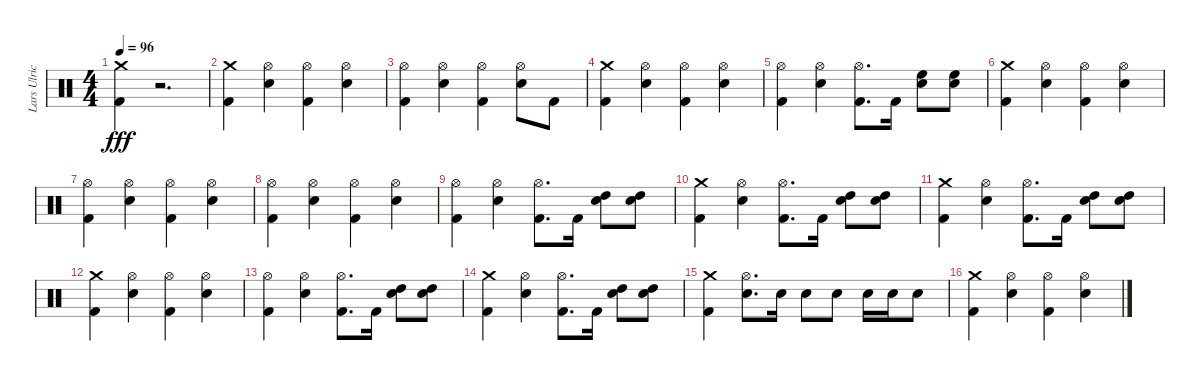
\track ("Lars Ulrich" "Lars Ulric") {instrument percussion}
\staff {score}
\articulation defaults
\ts (4 4)
\tempo 96
\clef neutral
\ks c
("Kick (hit) 2" "Crash medium (hit)").4{dy fff} r.2{d} |
("Kick (hit) 2" "Crash medium (hit)").4 ("Hi-Hat (open)" "Snare (hit) 2").4 ("Hi-Hat (open)" "Kick (hit) 2").4 ("Hi-Hat (open)" "Snare (hit) 2").4 |
("Hi-Hat (open)" "Kick (hit) 2").4 ("Hi-Hat (open)" "Snare (hit) 2").4 ("Hi-Hat (open)" "Kick (hit) 2").4 ("Hi-Hat (open)" "Snare (hit) 2").8 "Kick (hit) 2".8 |
("Kick (hit) 2" "Crash medium (hit)").4 ("Hi-Hat (open)" "Snare (hit) 2").4 ("Hi-Hat (open)" "Kick (hit) 2").4 ("Hi-Hat (open)" "Snare (hit) 2").4 |
("Hi-Hat (open)" "Kick (hit) 2").4 ("Hi-Hat (open)" "Snare (hit) 2").4 ("Hi-Hat (open)" "Kick (hit) 2").8{d} "Kick (hit) 2".16 ("High Floor Tom (hit)" "Snare (hit) 2").8 ("High Floor Tom (hit)" "Snare (hit) 2").8 |
("Kick (hit) 2" "Crash medium (hit)").4 ("Hi-Hat (open)" "Snare (hit) 2").4 ("Hi-Hat (open)" "Kick (hit) 2").4 ("Hi-Hat (open)" "Snare (hit) 2").4 |
("Hi-Hat (open)" "Kick (hit) 2").4 ("Hi-Hat (open)" "Snare (hit) 2").4 ("Hi-Hat (open)" "Kick (hit) 2").4 ("Hi-Hat (open)" "Snare (hit) 2").4 |
("Hi-Hat (open)" "Kick (hit) 2").4 ("Hi-Hat (open)" "Snare (hit) 2").4 ("Hi-Hat (open)" "Kick (hit) 2").4 ("Hi-Hat (open)" "Snare (hit) 2").4 |
("Hi-Hat (open)" "Kick (hit) 2").4 ("Hi-Hat (open)" "Snare (hit) 2").4 ("Hi-Hat (open)" "Kick (hit) 2").8{d} "Kick (hit) 2".16 ("High Tom (hit)" "Snare (hit) 2").8 ("High Tom (hit)" "Snare (hit) 2").8 |
("Kick (hit) 2" "Crash medium (hit)").4 ("Hi-Hat (open)" "Snare (hit) 2").4 ("Hi-Hat (open)" "Kick (hit) 2").8{d} "Kick (hit) 2".16 ("High Tom (hit)" "Snare (hit) 2").8 ("High Tom (hit)" "Snare (hit) 2").8 |
("Kick (hit) 2" "Crash medium (hit)").4 ("Hi-Hat (open)" "Snare (hit) 2").4 ("Hi-Hat (open)" "Kick (hit) 2").8{d} "Kick (hit) 2".16 ("High Tom (hit)" "Snare (hit) 2").8 ("High Tom (hit)" "Snare (hit) 2").8 |
("Kick (hit) 2" "Crash medium (hit)").4 ("Hi-Hat (open)" "Snare (hit) 2").4 ("Hi-Hat (open)" "Kick (hit) 2").4 ("Hi-Hat (open)" "Snare (hit) 2").4 |
("Kick (hit) 2" "Hi-Hat (open)").4 ("Hi-Hat (open)" "Snare (hit) 2").4 ("Hi-Hat (open)" "Kick (hit) 2").8{d} "Kick (hit) 2".16 ("High Tom (hit)" "Snare (hit) 2").8 ("High Tom (hit)" "Snare (hit) 2").8 |
("Kick (hit) 2" "Crash medium (hit)").4 ("Hi-Hat (open)" "Snare (hit) 2").4 ("Hi-Hat (open)" "Kick (hit) 2").8{d} "Kick (hit) 2".16 ("High Tom (hit)" "Snare (hit) 2").8 ("High Tom (hit)" "Snare (hit) 2").8 |
("Kick (hit) 2" "Crash medium (hit)").4 ("Hi-Hat (open)" "Snare (hit) 2").8{d} "Snare (hit) 2".16 "Snare (hit) 2".8 "Snare (hit) 2".8 "Snare (hit) 2".16 "Snare (hit) 2".16 "Snare (hit) 2".8 |
("Kick (hit) 2" "Crash medium (hit)").4 ("Hi-Hat (open)" "Snare (hit) 2").4 ("Hi-Hat (open)" "Kick (hit) 2").4 ("Hi-Hat (open)" "Snare (hit) 2").4
